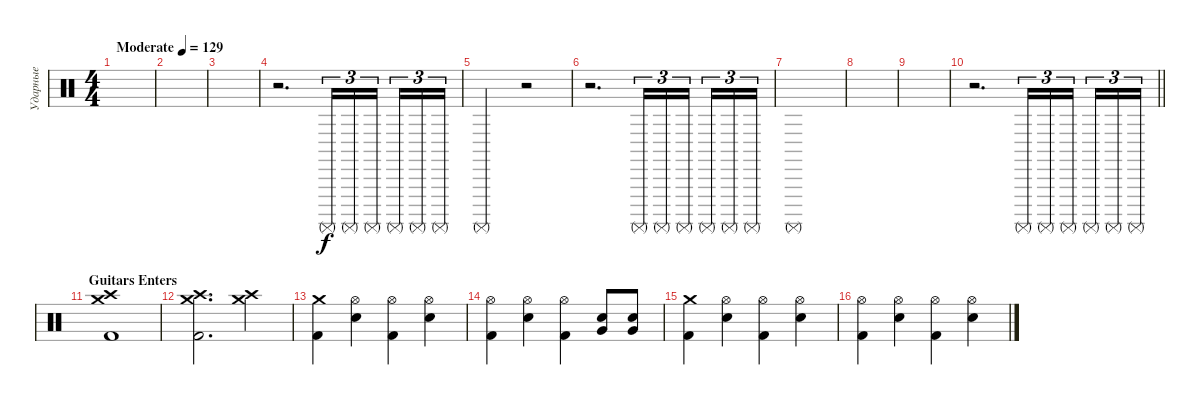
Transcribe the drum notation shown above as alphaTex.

\track ("Ударные" "Ударные") {instrument percussion}
\staff
\articulation defaults
\ts (4 4)
\tempo (129 "Moderate")
\clef neutral
\ks c
|
|
|
r.2{d volume 16} "Surdo (mute)".16{tu (3 2)} "Surdo (mute)".16{tu (3 2)} "Surdo (mute)".16{tu (3 2) beam splitsecondary} "Surdo (mute)".16{tu (3 2)} "Surdo (mute)".16{tu (3 2)} "Surdo (mute)".16{tu (3 2)} |
"Surdo (mute)".2 r.2{volume 0} |
r.2{d volume 16} "Surdo (mute)".16{tu (3 2)} "Surdo (mute)".16{tu (3 2)} "Surdo (mute)".16{tu (3 2) beam splitsecondary} "Surdo (mute)".16{tu (3 2)} "Surdo (mute)".16{tu (3 2)} "Surdo (mute)".16{tu (3 2)} |
"Surdo (mute)".1 |
|
|
\barLineRight lightlight
r.2{d volume 16} "Surdo (mute)".16{tu (3 2)} "Surdo (mute)".16{tu (3 2)} "Surdo (mute)".16{tu (3 2) beam splitsecondary} "Surdo (mute)".16{tu (3 2)} "Surdo (mute)".16{tu (3 2)} "Surdo (mute)".16{tu (3 2)} |
\section ("" "Guitars Enters")
("Crash medium (hit)" "Crash high (hit)" "Kick (hit) 2").1 |
("Crash high (hit)" "Crash medium (hit)" "Kick (hit) 2").2{d} ("Crash medium (hit)" "Crash high (hit)").4 |
("Crash medium (hit)" "Kick (hit) 2").4 ("Hi-Hat (open)" "Snare (hit) 2").4 ("Hi-Hat (open)" "Kick (hit) 2").4 ("Hi-Hat (open)" "Snare (hit) 2").4 |
("Hi-Hat (open)" "Kick (hit) 2").4 ("Hi-Hat (open)" "Snare (hit) 2").4 ("Hi-Hat (open)" "Kick (hit) 2").4 ("Snare (hit) 2" "Very Low Tom (hit)").8 ("Snare (hit) 2" "Very Low Tom (hit)").8 |
("Crash medium (hit)" "Kick (hit) 2").4 ("Hi-Hat (open)" "Snare (hit) 2").4 ("Hi-Hat (open)" "Kick (hit) 2").4 ("Hi-Hat (open)" "Snare (hit) 2").4 |
("Hi-Hat (open)" "Kick (hit) 2").4 ("Hi-Hat (open)" "Snare (hit) 2").4 ("Hi-Hat (open)" "Kick (hit) 2").4 ("Hi-Hat (open)" "Snare (hit) 2").4
